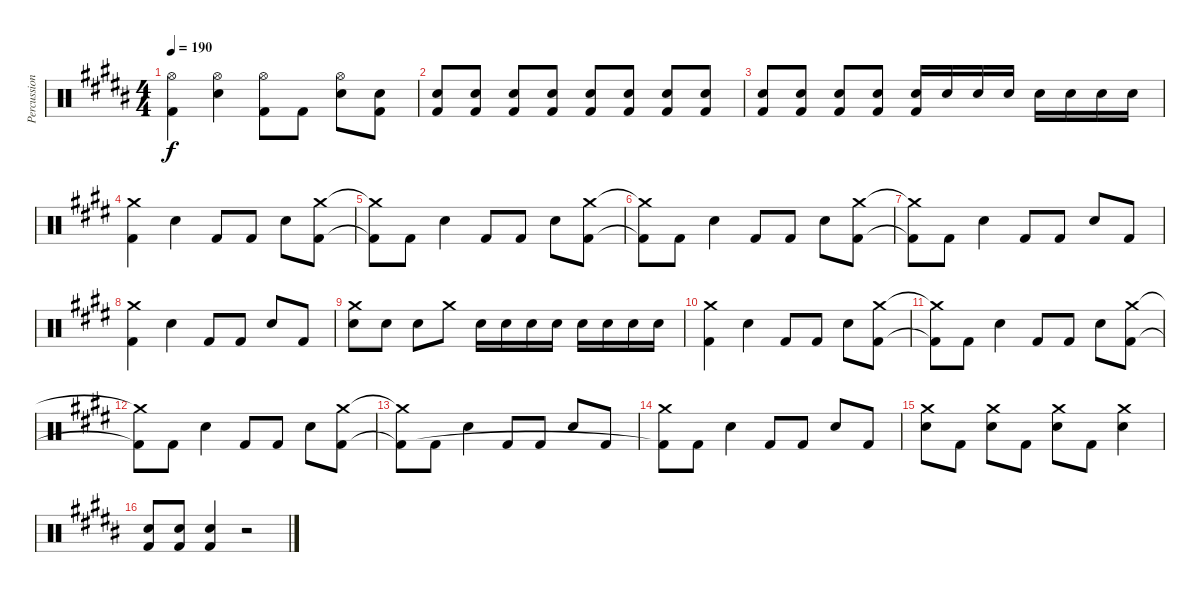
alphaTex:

\track ("Percussion" "Percussion") {instrument percussion}
\staff {score}
\articulation defaults
\ts (4 4)
\tempo 190
\clef neutral
\ks b
("Hi-Hat (open)" "Kick (hit) 2").4{dy f} ("Hi-Hat (open)" "Snare (hit) 2").4 ("Hi-Hat (open)" "Kick (hit) 2").8 "Kick (hit) 2".8 ("Hi-Hat (open)" "Snare (hit) 2").8 ("Snare (hit) 2" "Kick (hit) 2").8 |
("Snare (hit) 2" "Kick (hit) 2").8 ("Snare (hit) 2" "Kick (hit) 2").8 ("Snare (hit) 2" "Kick (hit) 2").8 ("Snare (hit) 2" "Kick (hit) 2").8 ("Snare (hit) 2" "Kick (hit) 2").8 ("Snare (hit) 2" "Kick (hit) 2").8 ("Snare (hit) 2" "Kick (hit) 2").8 ("Snare (hit) 2" "Kick (hit) 2").8 |
("Snare (hit) 2" "Kick (hit) 2").8 ("Snare (hit) 2" "Kick (hit) 2").8 ("Snare (hit) 2" "Kick (hit) 2").8 ("Snare (hit) 2" "Kick (hit) 2").8 ("Snare (hit) 2" "Kick (hit) 2").16 "Snare (hit) 2".16 "Snare (hit) 2".16 "Snare (hit) 2".16 "Snare (hit) 2".16 "Snare (hit) 2".16 "Snare (hit) 2".16 "Snare (hit) 2".16 |
\ks e
("Crash medium (hit)" "Kick (hit) 2").4 "Snare (hit) 2".4 "Kick (hit) 2".8 "Kick (hit) 2".8 "Snare (hit) 2".8 ("Crash medium (hit)" "Kick (hit) 2").8 |
("Crash medium (hit)"{t} "Kick (hit) 2"{t}).8 "Kick (hit) 2".8 "Snare (hit) 2".4 "Kick (hit) 2".8 "Kick (hit) 2".8 "Snare (hit) 2".8 ("Crash medium (hit)" "Kick (hit) 2").8 |
("Crash medium (hit)"{t} "Kick (hit) 2"{t}).8 "Kick (hit) 2".8 "Snare (hit) 2".4 "Kick (hit) 2".8 "Kick (hit) 2".8 "Snare (hit) 2".8 ("Crash medium (hit)" "Kick (hit) 2").8 |
("Crash medium (hit)"{t} "Kick (hit) 2"{t}).8 "Kick (hit) 2".8 "Snare (hit) 2".4 "Kick (hit) 2".8 "Kick (hit) 2".8 "Snare (hit) 2".8 "Kick (hit) 2".8 |
("Crash medium (hit)" "Kick (hit) 2").4 "Snare (hit) 2".4 "Kick (hit) 2".8 "Kick (hit) 2".8 "Snare (hit) 2".8 "Kick (hit) 2".8 |
("Crash medium (hit)" "Snare (hit) 2").8 "Snare (hit) 2".8 "Snare (hit) 2".8 "Crash medium (hit)".8 "Snare (hit) 2".16 "Snare (hit) 2".16 "Snare (hit) 2".16 "Snare (hit) 2".16 "Snare (hit) 2".16 "Snare (hit) 2".16 "Snare (hit) 2".16 "Snare (hit) 2".16 |
("Crash medium (hit)" "Kick (hit) 2").4 "Snare (hit) 2".4 "Kick (hit) 2".8 "Kick (hit) 2".8 "Snare (hit) 2".8 ("Crash medium (hit)" "Kick (hit) 2").8 |
("Crash medium (hit)"{t} "Kick (hit) 2"{t}).8 "Kick (hit) 2".8 "Snare (hit) 2".4 "Kick (hit) 2".8 "Kick (hit) 2".8 "Snare (hit) 2".8 ("Crash medium (hit)" "Kick (hit) 2").8 |
("Crash medium (hit)"{t} "Kick (hit) 2"{t}).8 "Kick (hit) 2".8 "Snare (hit) 2".4 "Kick (hit) 2".8 "Kick (hit) 2".8 "Snare (hit) 2".8 ("Crash medium (hit)" "Kick (hit) 2").8 |
("Crash medium (hit)"{t} "Kick (hit) 2"{t}).8 "Kick (hit) 2".8 "Snare (hit) 2".4 "Kick (hit) 2".8 "Kick (hit) 2".8 "Snare (hit) 2".8 "Kick (hit) 2".8 |
("Crash medium (hit)" "Kick (hit) 2"{t}).8 "Kick (hit) 2".8 "Snare (hit) 2".4 "Kick (hit) 2".8 "Kick (hit) 2".8 "Snare (hit) 2".8 "Kick (hit) 2".8 |
("Crash medium (hit)" "Snare (hit) 2").8 "Kick (hit) 2".8 ("Crash medium (hit)" "Snare (hit) 2").8 "Kick (hit) 2".8 ("Crash medium (hit)" "Snare (hit) 2").8 "Kick (hit) 2".8 ("Crash medium (hit)" "Snare (hit) 2").4 |
\ks b
("Snare (hit) 2" "Kick (hit) 2").8 ("Snare (hit) 2" "Kick (hit) 2").8 ("Snare (hit) 2" "Kick (hit) 2").4 r.2
